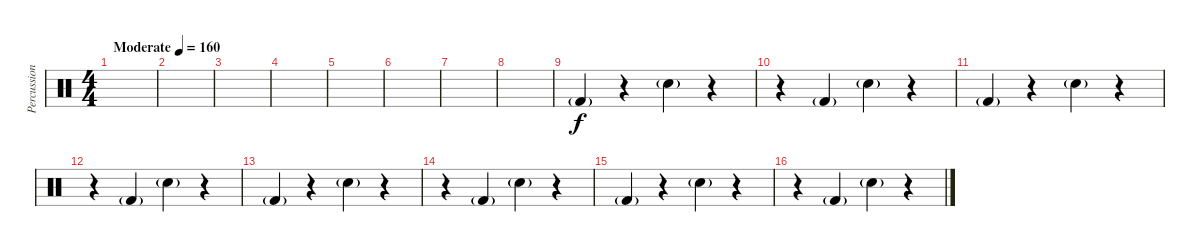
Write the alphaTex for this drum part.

\track ("Percussion" "Percussion") {instrument percussion}
\staff {score}
\articulation defaults
\ts (4 4)
\tempo (160 "Moderate")
\clef neutral
\ks c
|
|
|
|
|
|
|
|
"Kick (hit) 2"{g}.4 r.4 "Electric Snare (hit)"{g}.4 r.4 |
r.4 "Kick (hit) 2"{g}.4 "Electric Snare (hit)"{g}.4 r.4 |
"Kick (hit) 2"{g}.4 r.4 "Electric Snare (hit)"{g}.4 r.4 |
r.4 "Kick (hit) 2"{g}.4 "Electric Snare (hit)"{g}.4 r.4 |
"Kick (hit) 2"{g}.4 r.4 "Electric Snare (hit)"{g}.4 r.4 |
r.4 "Kick (hit) 2"{g}.4 "Electric Snare (hit)"{g}.4 r.4 |
"Kick (hit) 2"{g}.4 r.4 "Electric Snare (hit)"{g}.4 r.4 |
r.4 "Kick (hit) 2"{g}.4 "Electric Snare (hit)"{g}.4 r.4
